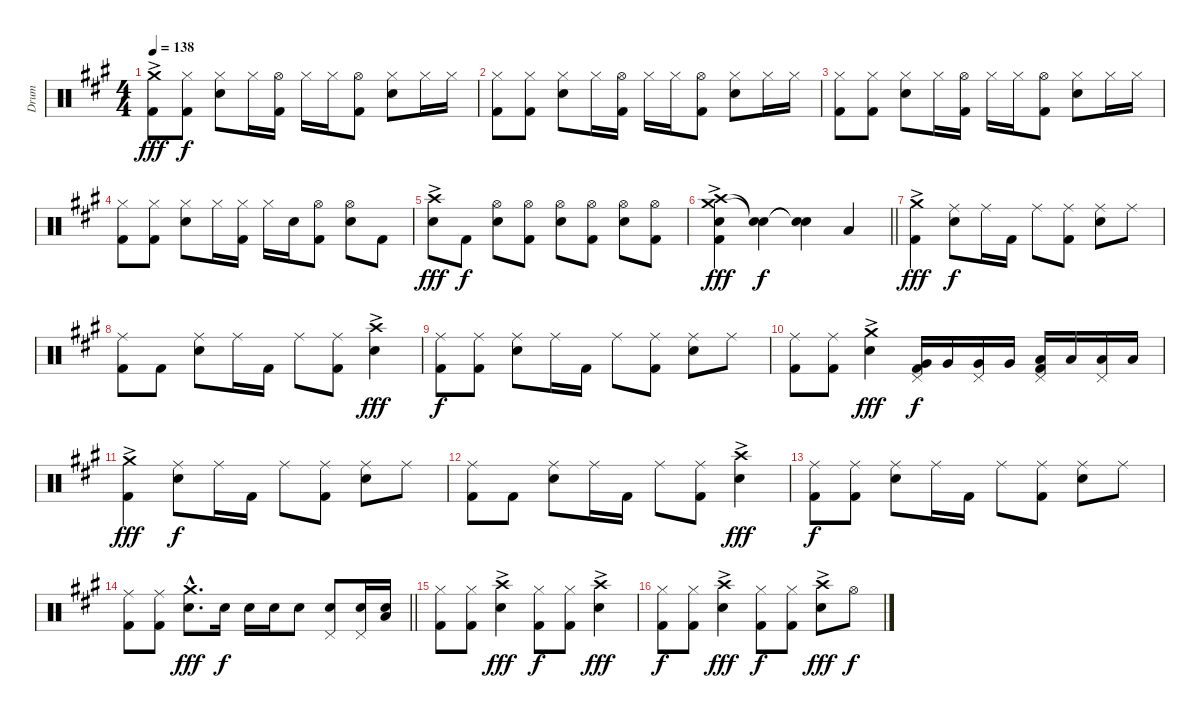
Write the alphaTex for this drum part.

\track ("Drum" "Drum") {instrument percussion}
\staff {score}
\articulation defaults
\ts (4 4)
\tempo 138
\clef neutral
\ks a
("Crash medium (hit)"{ac} "Kick (hit) 2").8{dy fff} ("Hi-Hat (closed)" "Kick (hit) 2").8{dy f} ("Hi-Hat (closed)" "Snare (hit) 2").8 "Hi-Hat (closed)".16 ("Hi-Hat (open)" "Kick (hit) 2").16 "Hi-Hat (closed)".16 "Hi-Hat (closed)".16 ("Hi-Hat (open)" "Kick (hit) 2").8 ("Hi-Hat (closed)" "Snare (hit) 2").8 "Hi-Hat (closed)".16 "Hi-Hat (closed)".16 |
("Hi-Hat (closed)" "Kick (hit) 2").8 ("Hi-Hat (closed)" "Kick (hit) 2").8 ("Hi-Hat (closed)" "Snare (hit) 2").8 "Hi-Hat (closed)".16 ("Hi-Hat (open)" "Kick (hit) 2").16 "Hi-Hat (closed)".16 "Hi-Hat (closed)".16 ("Hi-Hat (open)" "Kick (hit) 2").8 ("Hi-Hat (closed)" "Snare (hit) 2").8 "Hi-Hat (closed)".16 "Hi-Hat (closed)".16 |
("Hi-Hat (closed)" "Kick (hit) 2").8 ("Hi-Hat (closed)" "Kick (hit) 2").8 ("Hi-Hat (closed)" "Snare (hit) 2").8 "Hi-Hat (closed)".16 ("Hi-Hat (open)" "Kick (hit) 2").16 "Hi-Hat (closed)".16 "Hi-Hat (closed)".16 ("Hi-Hat (open)" "Kick (hit) 2").8 ("Hi-Hat (closed)" "Snare (hit) 2").8 "Hi-Hat (closed)".16 "Hi-Hat (closed)".16 |
("Hi-Hat (closed)" "Kick (hit) 2").8 ("Hi-Hat (closed)" "Kick (hit) 2").8 ("Hi-Hat (closed)" "Snare (hit) 2").8 "Hi-Hat (closed)".16 ("Hi-Hat (closed)" "Kick (hit) 2").16 "Hi-Hat (closed)".16 "Snare (hit) 2".16 ("Hi-Hat (open)" "Kick (hit) 2").8 ("Hi-Hat (open)" "Snare (hit) 2").8 "Kick (hit) 2".8 |
("Crash high (hit)"{ac} "Snare (hit) 2").8{dy fff} "Kick (hit) 2".8{dy f} ("Hi-Hat (open)" "Snare (hit) 2").8 ("Hi-Hat (open)" "Kick (hit) 2").8 ("Hi-Hat (open)" "Snare (hit) 2").8 ("Hi-Hat (open)" "Kick (hit) 2").8 ("Hi-Hat (open)" "Snare (hit) 2").8 ("Hi-Hat (open)" "Kick (hit) 2").8 |
\barLineRight lightlight
("Crash high (hit)"{ac} "Crash medium (hit)"{ac} "Snare (hit) 2" "Kick (hit) 2").4{dy fff} ("Snare (hit)"{t} "Snare (hit)"{t}).4{dy f} ("Snare (hit)"{t} "Snare (hit)"{t}).4 "Low Floor Tom (hit)".4 |
("Crash medium (hit)"{ac} "Kick (hit) 2").4{dy fff} ("Ride (middle)" "Snare (hit) 2").8{dy f} "Ride (middle)".16 "Kick (hit) 2".16 "Ride (middle)".8 ("Ride (middle)" "Kick (hit) 2").8 ("Ride (middle)" "Snare (hit) 2").8 "Ride (middle)".8 |
("Ride (middle)" "Kick (hit) 2").8 "Kick (hit) 2".8 ("Ride (middle)" "Snare (hit) 2").8 "Ride (middle)".16 "Kick (hit) 2".16 "Ride (middle)".8 ("Ride (middle)" "Kick (hit) 2").8 ("Crash high (hit)"{ac} "Snare (hit) 2").4{dy fff} |
("Ride (middle)" "Kick (hit) 2").8{dy f} ("Ride (middle)" "Kick (hit) 2").8 ("Ride (middle)" "Snare (hit) 2").8 "Ride (middle)".16 "Kick (hit) 2".16 "Ride (middle)".8 ("Ride (middle)" "Kick (hit) 2").8 ("Ride (middle)" "Snare (hit) 2").8 "Ride (middle)".8 |
("Ride (middle)" "Kick (hit) 2").8 ("Ride (middle)" "Kick (hit) 2").8 ("Crash medium (hit)"{ac} "Snare (hit) 2").4{dy fff} ("Pedal Hi-Hat (hit)" "Very Low Tom (hit)" "Kick (hit) 2").16{dy f} "Very Low Tom (hit)".16 ("Pedal Hi-Hat (hit)" "Very Low Tom (hit)").16 "Very Low Tom (hit)".16 ("Pedal Hi-Hat (hit)" "Low Floor Tom (hit)" "Kick (hit) 2").16 "Low Floor Tom (hit)".16 ("Pedal Hi-Hat (hit)" "Low Floor Tom (hit)").16 "Low Floor Tom (hit)".16 |
("Crash medium (hit)"{ac} "Kick (hit) 2").4{dy fff} ("Ride (middle)" "Snare (hit) 2").8{dy f} "Ride (middle)".16 "Kick (hit) 2".16 "Ride (middle)".8 ("Ride (middle)" "Kick (hit) 2").8 ("Ride (middle)" "Snare (hit) 2").8 "Ride (middle)".8 |
("Ride (middle)" "Kick (hit) 2").8 "Kick (hit) 2".8 ("Ride (middle)" "Snare (hit) 2").8 "Ride (middle)".16 "Kick (hit) 2".16 "Ride (middle)".8 ("Ride (middle)" "Kick (hit) 2").8 ("Crash high (hit)"{ac} "Snare (hit) 2").4{dy fff} |
("Ride (middle)" "Kick (hit) 2").8{dy f} ("Ride (middle)" "Kick (hit) 2").8 ("Ride (middle)" "Snare (hit) 2").8 "Ride (middle)".16 "Kick (hit) 2".16 "Ride (middle)".8 ("Ride (middle)" "Kick (hit) 2").8 ("Ride (middle)" "Snare (hit) 2").8 "Ride (middle)".8 |
\barLineRight lightlight
("Ride (middle)" "Kick (hit) 2").8 ("Ride (middle)" "Kick (hit) 2").8 ("Crash medium (hit)"{hac} "Snare (hit) 2"{hac}).8{d dy fff} "Snare (hit) 2".16{dy f} "Snare (hit) 2".16 "Snare (hit) 2".16 "Snare (hit) 2".8 ("Pedal Hi-Hat (hit)" "Snare (hit) 2").8 ("Pedal Hi-Hat (hit)" "Snare (hit) 2").16 ("Snare (hit) 2" "Low Floor Tom (hit)").16 |
("Hi-Hat (closed)" "Kick (hit) 2").8 ("Hi-Hat (closed)" "Kick (hit) 2").8 ("Crash high (hit)"{ac} "Snare (hit) 2").4{dy fff} ("Hi-Hat (closed)" "Kick (hit) 2").8{dy f} ("Hi-Hat (closed)" "Kick (hit) 2").8 ("Crash high (hit)"{ac} "Snare (hit) 2").4{dy fff} |
("Hi-Hat (closed)" "Kick (hit) 2").8{dy f} ("Hi-Hat (closed)" "Kick (hit) 2").8 ("Crash high (hit)"{ac} "Snare (hit) 2").4{dy fff} ("Hi-Hat (closed)" "Kick (hit) 2").8{dy f} ("Hi-Hat (closed)" "Kick (hit) 2").8 ("Crash high (hit)"{ac} "Snare (hit) 2").8{dy fff} "Hi-Hat (open)".8{dy f}
